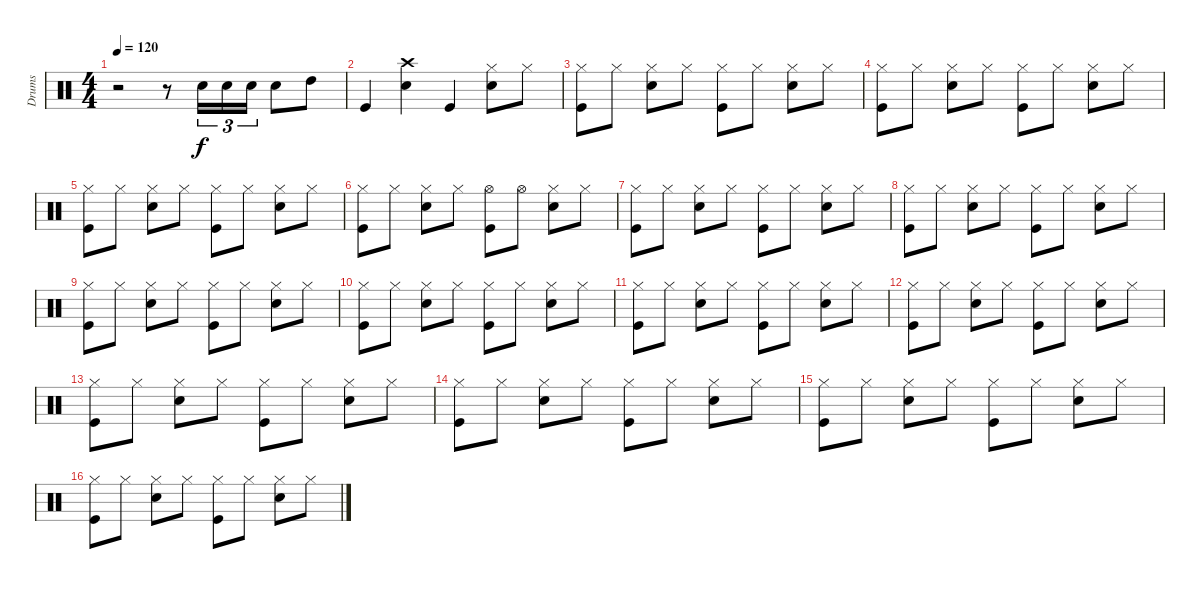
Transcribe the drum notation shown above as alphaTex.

\track ("Drums" "Drums") {instrument percussion}
\staff {score}
\articulation defaults
\ts (4 4)
\tempo 120
\clef neutral
\ks c
r.2{dy f} r.8 "Snare (hit) 2".16{tu (3 2)} "Snare (hit) 2".16{tu (3 2)} "Snare (hit) 2".16{tu (3 2)} "Snare (hit) 2".8 "High Tom (hit)".8 |
"Kick (hit)".4 ("Crash high (hit)" "Snare (hit) 2").4 "Kick (hit)".4 ("Hi-Hat (closed)" "Snare (hit) 2").8 "Hi-Hat (closed)".8 |
("Hi-Hat (closed)" "Kick (hit)").8 "Hi-Hat (closed)".8 ("Hi-Hat (closed)" "Snare (hit) 2").8 "Hi-Hat (closed)".8 ("Hi-Hat (closed)" "Kick (hit)").8 "Hi-Hat (closed)".8 ("Hi-Hat (closed)" "Snare (hit) 2").8 "Hi-Hat (closed)".8 |
("Hi-Hat (closed)" "Kick (hit)").8 "Hi-Hat (closed)".8 ("Hi-Hat (closed)" "Snare (hit) 2").8 "Hi-Hat (closed)".8 ("Hi-Hat (closed)" "Kick (hit)").8 "Hi-Hat (closed)".8 ("Hi-Hat (closed)" "Snare (hit) 2").8 "Hi-Hat (closed)".8 |
("Hi-Hat (closed)" "Kick (hit)").8 "Hi-Hat (closed)".8 ("Hi-Hat (closed)" "Snare (hit) 2").8 "Hi-Hat (closed)".8 ("Hi-Hat (closed)" "Kick (hit)").8 "Hi-Hat (closed)".8 ("Hi-Hat (closed)" "Snare (hit) 2").8 "Hi-Hat (closed)".8 |
("Hi-Hat (closed)" "Kick (hit)").8 "Hi-Hat (closed)".8 ("Hi-Hat (closed)" "Snare (hit) 2").8 "Hi-Hat (closed)".8 ("Hi-Hat (open)" "Kick (hit)").8 "Hi-Hat (open)".8 ("Hi-Hat (closed)" "Snare (hit) 2").8 "Hi-Hat (closed)".8 |
("Hi-Hat (closed)" "Kick (hit)").8 "Hi-Hat (closed)".8 ("Hi-Hat (closed)" "Snare (hit) 2").8 "Hi-Hat (closed)".8 ("Hi-Hat (closed)" "Kick (hit)").8 "Hi-Hat (closed)".8 ("Hi-Hat (closed)" "Snare (hit) 2").8 "Hi-Hat (closed)".8 |
("Hi-Hat (closed)" "Kick (hit)").8 "Hi-Hat (closed)".8 ("Hi-Hat (closed)" "Snare (hit) 2").8 "Hi-Hat (closed)".8 ("Hi-Hat (closed)" "Kick (hit)").8 "Hi-Hat (closed)".8 ("Hi-Hat (closed)" "Snare (hit) 2").8 "Hi-Hat (closed)".8 |
("Hi-Hat (closed)" "Kick (hit)").8 "Hi-Hat (closed)".8 ("Hi-Hat (closed)" "Snare (hit) 2").8 "Hi-Hat (closed)".8 ("Hi-Hat (closed)" "Kick (hit)").8 "Hi-Hat (closed)".8 ("Hi-Hat (closed)" "Snare (hit) 2").8 "Hi-Hat (closed)".8 |
("Hi-Hat (closed)" "Kick (hit)").8 "Hi-Hat (closed)".8 ("Hi-Hat (closed)" "Snare (hit) 2").8 "Hi-Hat (closed)".8 ("Hi-Hat (closed)" "Kick (hit)").8 "Hi-Hat (closed)".8 ("Hi-Hat (closed)" "Snare (hit) 2").8 "Hi-Hat (closed)".8 |
("Hi-Hat (closed)" "Kick (hit)").8 "Hi-Hat (closed)".8 ("Hi-Hat (closed)" "Snare (hit) 2").8 "Hi-Hat (closed)".8 ("Hi-Hat (closed)" "Kick (hit)").8 "Hi-Hat (closed)".8 ("Hi-Hat (closed)" "Snare (hit) 2").8 "Hi-Hat (closed)".8 |
("Hi-Hat (closed)" "Kick (hit)").8 "Hi-Hat (closed)".8 ("Hi-Hat (closed)" "Snare (hit) 2").8 "Hi-Hat (closed)".8 ("Hi-Hat (closed)" "Kick (hit)").8 "Hi-Hat (closed)".8 ("Hi-Hat (closed)" "Snare (hit) 2").8 "Hi-Hat (closed)".8 |
("Hi-Hat (closed)" "Kick (hit)").8 "Hi-Hat (closed)".8 ("Hi-Hat (closed)" "Snare (hit) 2").8 "Hi-Hat (closed)".8 ("Hi-Hat (closed)" "Kick (hit)").8 "Hi-Hat (closed)".8 ("Hi-Hat (closed)" "Snare (hit) 2").8 "Hi-Hat (closed)".8 |
("Hi-Hat (closed)" "Kick (hit)").8 "Hi-Hat (closed)".8 ("Hi-Hat (closed)" "Snare (hit) 2").8 "Hi-Hat (closed)".8 ("Hi-Hat (closed)" "Kick (hit)").8 "Hi-Hat (closed)".8 ("Hi-Hat (closed)" "Snare (hit) 2").8 "Hi-Hat (closed)".8 |
("Hi-Hat (closed)" "Kick (hit)").8 "Hi-Hat (closed)".8 ("Hi-Hat (closed)" "Snare (hit) 2").8 "Hi-Hat (closed)".8 ("Hi-Hat (closed)" "Kick (hit)").8 "Hi-Hat (closed)".8 ("Hi-Hat (closed)" "Snare (hit) 2").8 "Hi-Hat (closed)".8 |
("Hi-Hat (closed)" "Kick (hit)").8 "Hi-Hat (closed)".8 ("Hi-Hat (closed)" "Snare (hit) 2").8 "Hi-Hat (closed)".8 ("Hi-Hat (closed)" "Kick (hit)").8 "Hi-Hat (closed)".8 ("Hi-Hat (closed)" "Snare (hit) 2").8 "Hi-Hat (closed)".8
